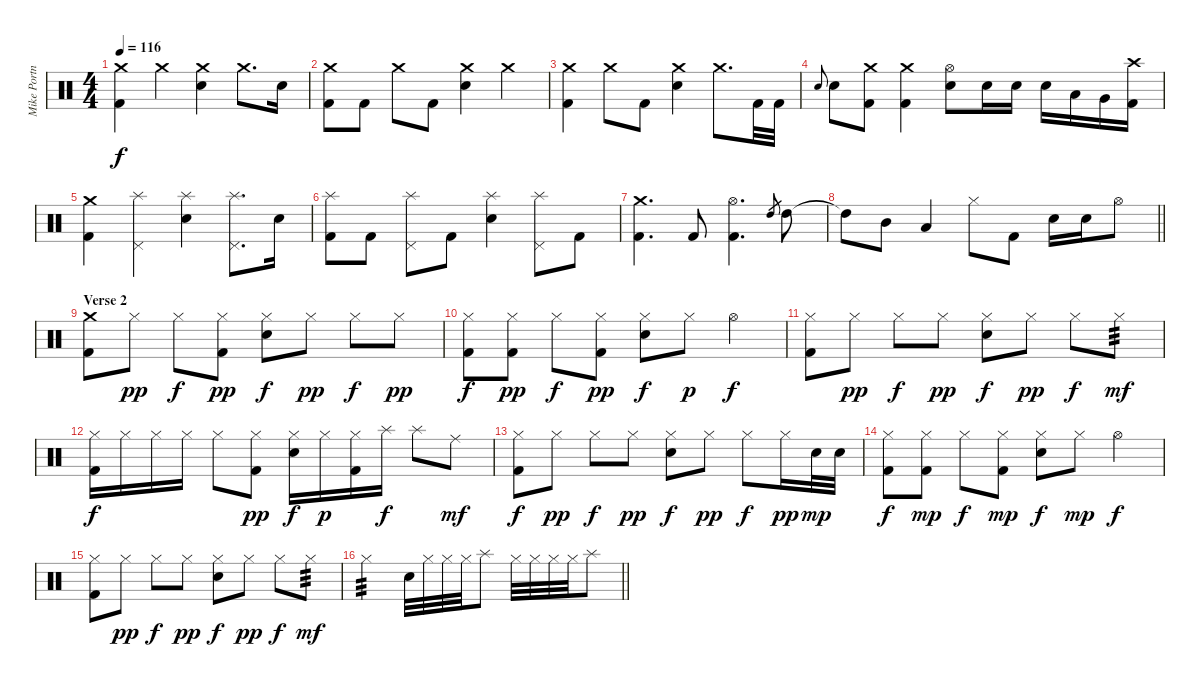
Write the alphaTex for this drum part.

\track ("Mike Portnoy [Drums]" "Mike Portn") {instrument percussion}
\staff {score}
\articulation defaults
\ts (4 4)
\tempo 116
\clef neutral
\ks c
("Crash medium (hit)" "Kick (hit) 2").4{dy f} "Crash medium (hit)".4 ("Crash medium (hit)" "Electric Snare (hit)").4 "Crash medium (hit)".8{d} "Electric Snare (hit)".16 |
("Crash medium (hit)" "Kick (hit) 2").8 "Kick (hit) 2".8 "Crash medium (hit)".8 "Kick (hit) 2".8 ("Crash medium (hit)" "Electric Snare (hit)").4 "Crash medium (hit)".4 |
("Crash medium (hit)" "Kick (hit) 2").4 "Crash medium (hit)".8 "Kick (hit) 2".8 ("Crash medium (hit)" "Electric Snare (hit)").4 "Crash medium (hit)".8{d} "Kick (hit) 2".32 "Kick (hit) 2".32 |
"Electric Snare (hit)".8{gr onbeat} "Electric Snare (hit)".8 ("Crash medium (hit)" "Kick (hit) 2").8 ("Crash medium (hit)" "Kick (hit) 2").4 ("Hi-Hat (open)" "Snare (hit) 2").8 "Electric Snare (hit)".16 "Electric Snare (hit)".16 "Electric Snare (hit)".16 "Low Tom (hit)".16 "Very Low Tom (hit)".16 ("Crash high (hit)" "Kick (hit) 2").16 |
("Crash medium (hit)" "Kick (hit) 2").4 ("Splash (hit)" "Pedal Hi-Hat (hit)").4 ("Splash (hit)" "Electric Snare (hit)").4 ("Splash (hit)" "Pedal Hi-Hat (hit)").8{d} "Electric Snare (hit)".16 |
("Splash (hit)" "Kick (hit) 2").8 "Kick (hit) 2".8 ("Splash (hit)" "Pedal Hi-Hat (hit)").8 "Kick (hit) 2".8 ("Splash (hit)" "Electric Snare (hit)").4 ("Splash (hit)" "Pedal Hi-Hat (hit)").8 "Kick (hit) 2".8 |
("Crash medium (hit)" "Kick (hit) 2").4{d} "Kick (hit) 2".8 ("Hi-Hat (open)" "Kick (hit) 2").4{d} "High Tom (hit)".8{gr} "High Tom (hit)".8 |
\barLineRight lightlight "High Tom (hit)"{t}.8 "Mid Tom (hit)".8 "Low Tom (hit)".4 "Hi-Hat (closed)".8 "Kick (hit) 2".8 "Electric Snare (hit)".16 "Electric Snare (hit)".16 "Hi-Hat (open)".8
|
\section ("" "Verse 2")
("Crash medium (hit)" "Kick (hit) 2").8 "Hi-Hat (closed)".8{dy pp} "Hi-Hat (closed)".8{dy f} ("Hi-Hat (closed)" "Kick (hit) 2").8{dy pp} ("Hi-Hat (closed)" "Electric Snare (hit)").8{dy f} "Hi-Hat (closed)".8{dy pp} "Hi-Hat (closed)".8{dy f} "Hi-Hat (closed)".8{dy pp} |
("Hi-Hat (closed)" "Kick (hit) 2").8{dy f} ("Hi-Hat (closed)" "Kick (hit) 2").8{dy pp} "Hi-Hat (closed)".8{dy f} ("Hi-Hat (closed)" "Kick (hit) 2").8{dy pp} ("Hi-Hat (closed)" "Electric Snare (hit)").8{dy f} "Hi-Hat (closed)".8{dy p} "Hi-Hat (open)".4{dy f} |
("Hi-Hat (closed)" "Kick (hit) 2").8 "Hi-Hat (closed)".8{dy pp} "Hi-Hat (closed)".8{dy f} "Hi-Hat (closed)".8{dy pp} ("Hi-Hat (closed)" "Electric Snare (hit)").8{dy f} "Hi-Hat (closed)".8{dy pp} "Hi-Hat (closed)".8{dy f} "Hi-Hat (closed)".8{tp 3 dy mf} |
("Hi-Hat (closed)" "Kick (hit) 2").16{dy f} "Hi-Hat (closed)".16 "Hi-Hat (closed)".16 "Hi-Hat (closed)".16 "Hi-Hat (closed)".8 ("Hi-Hat (closed)" "Kick (hit) 2").8{dy pp} ("Hi-Hat (closed)" "Electric Snare (hit)").16{dy f} "Hi-Hat (closed)".16{dy p} ("Hi-Hat (closed)" "Kick (hit) 2").16 "Splash (hit)".16{dy f} "Splash (hit)".8 "Ride (middle)".8{dy mf} |
("Hi-Hat (closed)" "Kick (hit) 2").8{dy f} "Hi-Hat (closed)".8{dy pp} "Hi-Hat (closed)".8{dy f} "Hi-Hat (closed)".8{dy pp} ("Hi-Hat (closed)" "Electric Snare (hit)").8{dy f} "Hi-Hat (closed)".8{dy pp} "Hi-Hat (closed)".8{dy f} "Hi-Hat (closed)".16{dy pp} "Electric Snare (hit)".32{dy mp} "Electric Snare (hit)".32 |
("Hi-Hat (closed)" "Kick (hit) 2").8{dy f} ("Hi-Hat (closed)" "Kick (hit) 2").8{dy mp} "Hi-Hat (closed)".8{dy f} ("Hi-Hat (closed)" "Kick (hit) 2").8{dy mp} ("Hi-Hat (closed)" "Electric Snare (hit)").8{dy f} "Hi-Hat (closed)".8{dy mp} "Hi-Hat (open)".4{dy f} |
("Hi-Hat (closed)" "Kick (hit) 2").8 "Hi-Hat (closed)".8{dy pp} "Hi-Hat (closed)".8{dy f} "Hi-Hat (closed)".8{dy pp} ("Hi-Hat (closed)" "Electric Snare (hit)").8{dy f} "Hi-Hat (closed)".8{dy pp} "Hi-Hat (closed)".8{dy f} "Hi-Hat (closed)".8{tp 3 dy mf} |
\barLineRight lightlight "Hi-Hat (closed)".2{tp 3} "Electric Snare (hit)".32 "Hi-Hat (closed)".32 "Hi-Hat (closed)".32 "Hi-Hat (closed)".32 "Splash (hit)".8 "Hi-Hat (closed)".32 "Hi-Hat (closed)".32 "Hi-Hat (closed)".32 "Hi-Hat (closed)".32 "Splash (hit)".8
